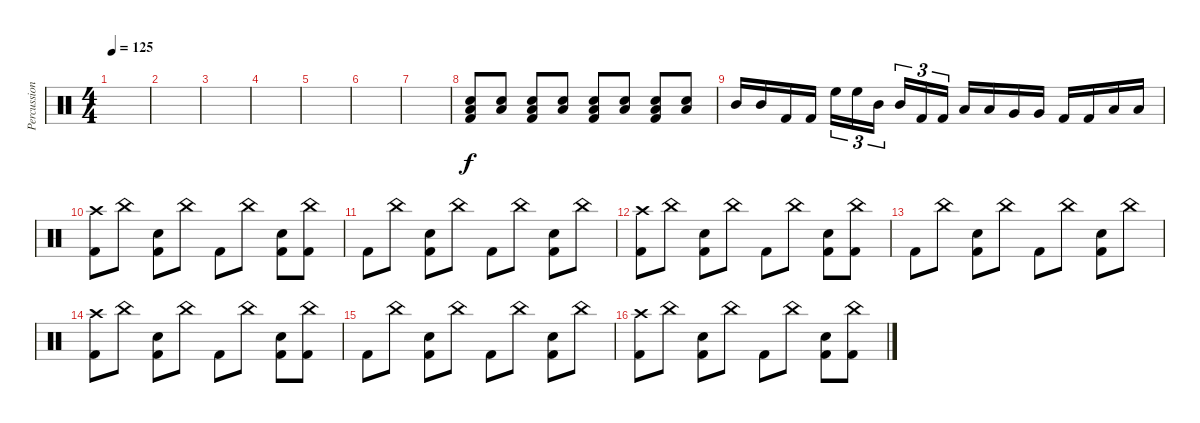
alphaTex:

\track ("Percussions" "Percussion") {instrument percussion}
\staff {score}
\articulation defaults
\ts (4 4)
\tempo 125
\clef neutral
\ks c
|
|
|
|
|
|
|
("Electric Snare (hit)" "Low Floor Tom (hit)" "Kick (hit) 2").8 ("Electric Snare (hit)" "Low Floor Tom (hit)").8 ("Electric Snare (hit)" "Low Floor Tom (hit)" "Kick (hit) 2").8 ("Electric Snare (hit)" "Low Floor Tom (hit)").8 ("Electric Snare (hit)" "Low Floor Tom (hit)" "Kick (hit) 2").8 ("Electric Snare (hit)" "Low Floor Tom (hit)").8 ("Electric Snare (hit)" "Low Floor Tom (hit)" "Kick (hit) 2").8 ("Electric Snare (hit)" "Low Floor Tom (hit)").8 |
"Mid Tom (hit)".16{dy f} "Mid Tom (hit)".16 "Kick (hit) 2".16 "Kick (hit) 2".16 "High Floor Tom (hit)".16{tu (3 2)} "High Floor Tom (hit)".16{tu (3 2)} "Mid Tom (hit)".16{tu (3 2) beam splitsecondary} "Mid Tom (hit)".16{tu (3 2)} "Kick (hit) 2".16{tu (3 2)} "Kick (hit) 2".16{tu (3 2)} "Low Tom (hit)".16 "Low Tom (hit)".16 "Very Low Tom (hit)".16 "Very Low Tom (hit)".16 "Kick (hit) 2".16 "Kick (hit) 2".16 "Low Floor Tom (hit)".16 "Low Floor Tom (hit)".16 |
("Crash high (hit)" "Kick (hit) 2").8 "China (hit)".8 ("Electric Snare (hit)" "Kick (hit) 2").8 "China (hit)".8 "Kick (hit) 2".8 "China (hit)".8 ("Electric Snare (hit)" "Kick (hit) 2").8 ("China (hit)" "Kick (hit) 2").8 |
"Kick (hit) 2".8 "China (hit)".8 ("Electric Snare (hit)" "Kick (hit) 2").8 "China (hit)".8 "Kick (hit) 2".8 "China (hit)".8 ("Electric Snare (hit)" "Kick (hit) 2").8 "China (hit)".8 |
("Crash high (hit)" "Kick (hit) 2").8 "China (hit)".8 ("Electric Snare (hit)" "Kick (hit) 2").8 "China (hit)".8 "Kick (hit) 2".8 "China (hit)".8 ("Electric Snare (hit)" "Kick (hit) 2").8 ("China (hit)" "Kick (hit) 2").8 |
"Kick (hit) 2".8 "China (hit)".8 ("Electric Snare (hit)" "Kick (hit) 2").8 "China (hit)".8 "Kick (hit) 2".8 "China (hit)".8 ("Electric Snare (hit)" "Kick (hit) 2").8 "China (hit)".8 |
("Crash high (hit)" "Kick (hit) 2").8 "China (hit)".8 ("Electric Snare (hit)" "Kick (hit) 2").8 "China (hit)".8 "Kick (hit) 2".8 "China (hit)".8 ("Electric Snare (hit)" "Kick (hit) 2").8 ("China (hit)" "Kick (hit) 2").8 |
"Kick (hit) 2".8 "China (hit)".8 ("Electric Snare (hit)" "Kick (hit) 2").8 "China (hit)".8 "Kick (hit) 2".8 "China (hit)".8 ("Electric Snare (hit)" "Kick (hit) 2").8 "China (hit)".8 |
("Crash high (hit)" "Kick (hit) 2").8 "China (hit)".8 ("Electric Snare (hit)" "Kick (hit) 2").8 "China (hit)".8 "Kick (hit) 2".8 "China (hit)".8 ("Electric Snare (hit)" "Kick (hit) 2").8 ("China (hit)" "Kick (hit) 2").8
